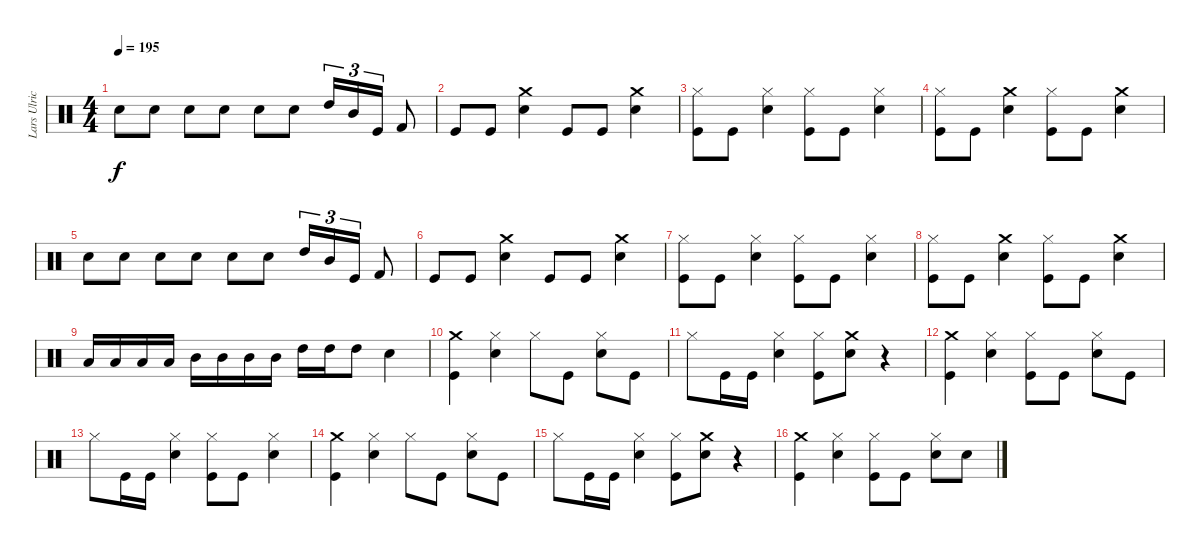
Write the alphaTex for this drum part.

\track ("Lars Ulrich (Drums)" "Lars Ulric") {instrument percussion}
\staff {score}
\articulation defaults
\ts (4 4)
\tempo 195
\clef neutral
\ks c "Snare (hit) 2".8{dy f} "Snare (hit) 2".8 "Snare (hit) 2".8 "Snare (hit) 2".8 "Snare (hit) 2".8 "Snare (hit) 2".8 "High Tom (hit)".16{tu (3 2)} "Mid Tom (hit)".16{tu (3 2)} "Kick (hit)".16{tu (3 2)} "Kick (hit) 2".8
|
"Kick (hit)".8 "Kick (hit)".8 ("Crash medium (hit)" "Snare (hit) 2").4 "Kick (hit)".8 "Kick (hit)".8 ("Crash medium (hit)" "Snare (hit) 2").4 |
("Kick (hit)" "Hi-Hat (closed)").8 "Kick (hit)".8 ("Snare (hit) 2" "Hi-Hat (closed)").4 ("Kick (hit)" "Hi-Hat (closed)").8 "Kick (hit)".8 ("Snare (hit) 2" "Hi-Hat (closed)").4 |
("Kick (hit)" "Hi-Hat (closed)").8 "Kick (hit)".8 ("Snare (hit) 2" "Crash medium (hit)").4 ("Kick (hit)" "Hi-Hat (closed)").8 "Kick (hit)".8 ("Crash medium (hit)" "Snare (hit) 2").4 |
"Snare (hit) 2".8 "Snare (hit) 2".8 "Snare (hit) 2".8 "Snare (hit) 2".8 "Snare (hit) 2".8 "Snare (hit) 2".8 "High Tom (hit)".16{tu (3 2)} "Mid Tom (hit)".16{tu (3 2)} "Kick (hit)".16{tu (3 2)} "Kick (hit) 2".8 |
"Kick (hit)".8 "Kick (hit)".8 ("Crash medium (hit)" "Snare (hit) 2").4 "Kick (hit)".8 "Kick (hit)".8 ("Crash medium (hit)" "Snare (hit) 2").4 |
("Kick (hit)" "Hi-Hat (closed)").8 "Kick (hit)".8 ("Snare (hit) 2" "Hi-Hat (closed)").4 ("Kick (hit)" "Hi-Hat (closed)").8 "Kick (hit)".8 ("Snare (hit) 2" "Hi-Hat (closed)").4 |
("Kick (hit)" "Hi-Hat (closed)").8 "Kick (hit)".8 ("Snare (hit) 2" "Crash medium (hit)").4 ("Kick (hit)" "Hi-Hat (closed)").8 "Kick (hit)".8 ("Crash medium (hit)" "Snare (hit) 2").4 |
"Low Tom (hit)".16 "Low Tom (hit)".16 "Low Tom (hit)".16 "Low Tom (hit)".16 "Mid Tom (hit)".16 "Mid Tom (hit)".16 "Mid Tom (hit)".16 "Mid Tom (hit)".16 "High Tom (hit)".16 "High Tom (hit)".16 "High Tom (hit)".8 "Snare (hit) 2".4 |
("Kick (hit)" "Crash medium (hit)").4 ("Hi-Hat (closed)" "Snare (hit) 2").4 "Hi-Hat (closed)".8 "Kick (hit)".8 ("Snare (hit) 2" "Hi-Hat (closed)").8 "Kick (hit)".8 |
"Hi-Hat (closed)".8 "Kick (hit)".16 "Kick (hit)".16 ("Snare (hit) 2" "Hi-Hat (closed)").4 ("Hi-Hat (closed)" "Kick (hit)").8 ("Crash medium (hit)" "Snare (hit) 2").8 r.4 |
("Kick (hit)" "Crash medium (hit)").4 ("Hi-Hat (closed)" "Snare (hit) 2").4 ("Hi-Hat (closed)" "Kick (hit)").8 "Kick (hit)".8 ("Snare (hit) 2" "Hi-Hat (closed)").8 "Kick (hit)".8 |
"Hi-Hat (closed)".8 "Kick (hit)".16 "Kick (hit)".16 ("Snare (hit) 2" "Hi-Hat (closed)").4 ("Hi-Hat (closed)" "Kick (hit)").8 "Kick (hit)".8 ("Snare (hit) 2" "Hi-Hat (closed)").4 |
("Kick (hit)" "Crash medium (hit)").4 ("Hi-Hat (closed)" "Snare (hit) 2").4 "Hi-Hat (closed)".8 "Kick (hit)".8 ("Snare (hit) 2" "Hi-Hat (closed)").8 "Kick (hit)".8 |
"Hi-Hat (closed)".8 "Kick (hit)".16 "Kick (hit)".16 ("Snare (hit) 2" "Hi-Hat (closed)").4 ("Hi-Hat (closed)" "Kick (hit)").8 ("Crash medium (hit)" "Snare (hit) 2").8 r.4 |
("Crash medium (hit)" "Kick (hit)").4 ("Snare (hit) 2" "Hi-Hat (closed)").4 ("Hi-Hat (closed)" "Kick (hit)").8 "Kick (hit)".8 ("Hi-Hat (closed)" "Snare (hit) 2").8 "Snare (hit) 2".8
